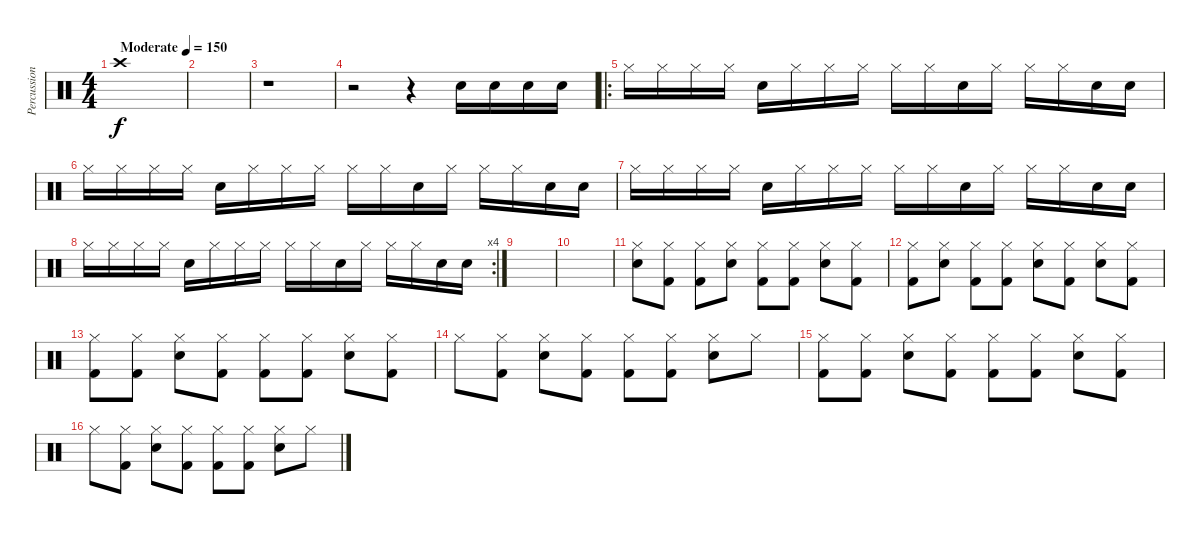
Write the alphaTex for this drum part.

\track ("Percussion" "Percussion") {instrument percussion}
\staff {score}
\articulation defaults
\ts (4 4)
\tempo (150 "Moderate")
\clef neutral
\ks c "Crash high (hit)".1{dy f}
|
|
r.1 |
r.2 r.4 "Electric Snare (hit)".16 "Electric Snare (hit)".16 "Electric Snare (hit)".16 "Electric Snare (hit)".16 |
\ro "Hi-Hat (closed)".16 "Hi-Hat (closed)".16 "Hi-Hat (closed)".16 "Hi-Hat (closed)".16 "Electric Snare (hit)".16 "Hi-Hat (closed)".16 "Hi-Hat (closed)".16 "Hi-Hat (closed)".16 "Hi-Hat (closed)".16 "Hi-Hat (closed)".16 "Electric Snare (hit)".16 "Hi-Hat (closed)".16 "Hi-Hat (closed)".16 "Hi-Hat (closed)".16 "Electric Snare (hit)".16 "Electric Snare (hit)".16
|
"Hi-Hat (closed)".16 "Hi-Hat (closed)".16 "Hi-Hat (closed)".16 "Hi-Hat (closed)".16 "Electric Snare (hit)".16 "Hi-Hat (closed)".16 "Hi-Hat (closed)".16 "Hi-Hat (closed)".16 "Hi-Hat (closed)".16 "Hi-Hat (closed)".16 "Electric Snare (hit)".16 "Hi-Hat (closed)".16 "Hi-Hat (closed)".16 "Hi-Hat (closed)".16 "Electric Snare (hit)".16 "Electric Snare (hit)".16 |
"Hi-Hat (closed)".16 "Hi-Hat (closed)".16 "Hi-Hat (closed)".16 "Hi-Hat (closed)".16 "Electric Snare (hit)".16 "Hi-Hat (closed)".16 "Hi-Hat (closed)".16 "Hi-Hat (closed)".16 "Hi-Hat (closed)".16 "Hi-Hat (closed)".16 "Electric Snare (hit)".16 "Hi-Hat (closed)".16 "Hi-Hat (closed)".16 "Hi-Hat (closed)".16 "Electric Snare (hit)".16 "Electric Snare (hit)".16 |
\rc 4 "Hi-Hat (closed)".16 "Hi-Hat (closed)".16 "Hi-Hat (closed)".16 "Hi-Hat (closed)".16 "Electric Snare (hit)".16 "Hi-Hat (closed)".16 "Hi-Hat (closed)".16 "Hi-Hat (closed)".16 "Hi-Hat (closed)".16 "Hi-Hat (closed)".16 "Electric Snare (hit)".16 "Hi-Hat (closed)".16 "Hi-Hat (closed)".16 "Hi-Hat (closed)".16 "Electric Snare (hit)".16 "Electric Snare (hit)".16
|
|
|
("Electric Snare (hit)" "Hi-Hat (closed)").8 ("Hi-Hat (closed)" "Kick (hit) 2").8 ("Hi-Hat (closed)" "Kick (hit) 2").8 ("Electric Snare (hit)" "Hi-Hat (closed)").8 ("Hi-Hat (closed)" "Kick (hit) 2").8 ("Hi-Hat (closed)" "Kick (hit) 2").8 ("Electric Snare (hit)" "Hi-Hat (closed)").8 ("Hi-Hat (closed)" "Kick (hit) 2").8 |
("Hi-Hat (closed)" "Kick (hit) 2").8 ("Electric Snare (hit)" "Hi-Hat (closed)").8 ("Hi-Hat (closed)" "Kick (hit) 2").8 ("Hi-Hat (closed)" "Kick (hit) 2").8 ("Electric Snare (hit)" "Hi-Hat (closed)").8 ("Hi-Hat (closed)" "Kick (hit) 2").8 ("Electric Snare (hit)" "Hi-Hat (closed)").8 ("Hi-Hat (closed)" "Kick (hit) 2").8 |
("Hi-Hat (closed)" "Kick (hit) 2").8 ("Hi-Hat (closed)" "Kick (hit) 2").8 ("Electric Snare (hit)" "Hi-Hat (closed)").8 ("Hi-Hat (closed)" "Kick (hit) 2").8 ("Hi-Hat (closed)" "Kick (hit) 2").8 ("Hi-Hat (closed)" "Kick (hit) 2").8 ("Electric Snare (hit)" "Hi-Hat (closed)").8 ("Hi-Hat (closed)" "Kick (hit) 2").8 |
"Hi-Hat (closed)".8 ("Hi-Hat (closed)" "Kick (hit) 2").8 ("Electric Snare (hit)" "Hi-Hat (closed)").8 ("Hi-Hat (closed)" "Kick (hit) 2").8 ("Hi-Hat (closed)" "Kick (hit) 2").8 ("Hi-Hat (closed)" "Kick (hit) 2").8 ("Electric Snare (hit)" "Hi-Hat (closed)").8 "Hi-Hat (closed)".8 |
("Hi-Hat (closed)" "Kick (hit) 2").8 ("Hi-Hat (closed)" "Kick (hit) 2").8 ("Electric Snare (hit)" "Hi-Hat (closed)").8 ("Hi-Hat (closed)" "Kick (hit) 2").8 ("Hi-Hat (closed)" "Kick (hit) 2").8 ("Hi-Hat (closed)" "Kick (hit) 2").8 ("Electric Snare (hit)" "Hi-Hat (closed)").8 ("Hi-Hat (closed)" "Kick (hit) 2").8 |
"Hi-Hat (closed)".8 ("Hi-Hat (closed)" "Kick (hit) 2").8 ("Electric Snare (hit)" "Hi-Hat (closed)").8 ("Hi-Hat (closed)" "Kick (hit) 2").8 ("Hi-Hat (closed)" "Kick (hit) 2").8 ("Hi-Hat (closed)" "Kick (hit) 2").8 ("Electric Snare (hit)" "Hi-Hat (closed)").8 "Hi-Hat (closed)".8
